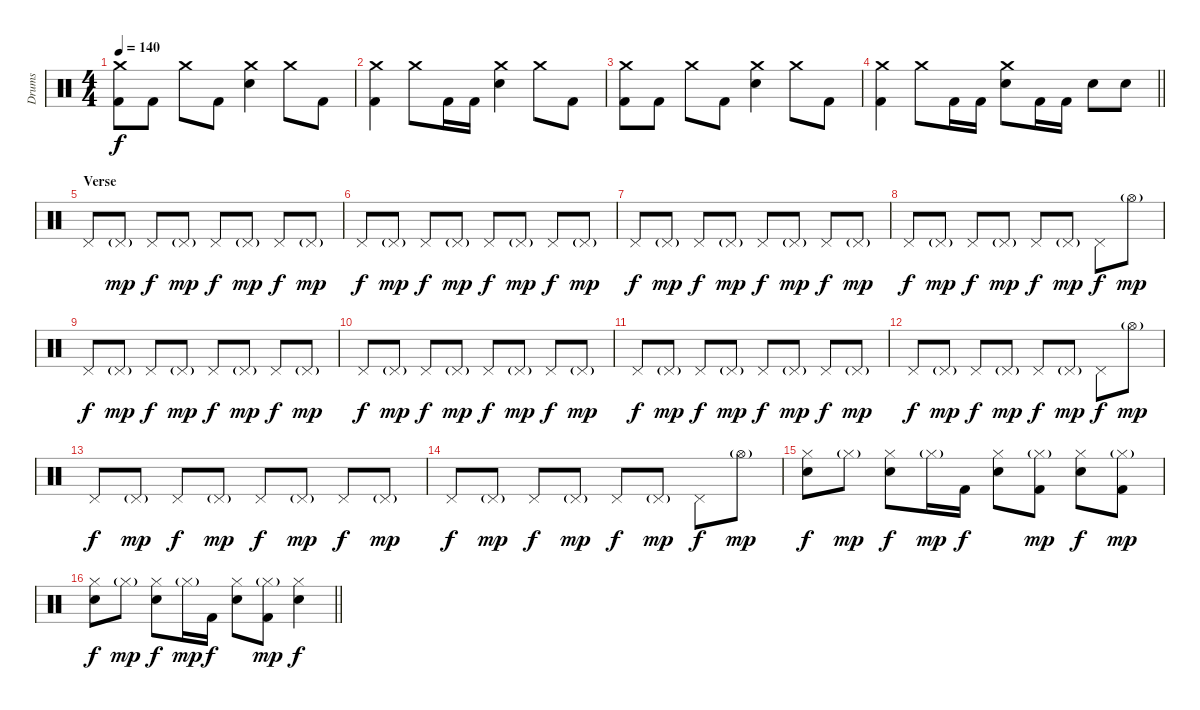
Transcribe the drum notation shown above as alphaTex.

\track ("Drums" "Drums") {instrument percussion}
\staff {score}
\articulation defaults
\ts (4 4)
\tempo 140
\clef neutral
\ks c
("Crash medium (hit)" "Kick (hit) 2").8{dy f} "Kick (hit) 2".8 "Crash medium (hit)".8 "Kick (hit) 2".8 ("Crash medium (hit)" "Electric Snare (hit)").4 "Crash medium (hit)".8 "Kick (hit) 2".8 |
("Crash medium (hit)" "Kick (hit) 2").4 "Crash medium (hit)".8 "Kick (hit) 2".16 "Kick (hit) 2".16 ("Crash medium (hit)" "Electric Snare (hit)").4 "Crash medium (hit)".8 "Kick (hit) 2".8 |
("Crash medium (hit)" "Kick (hit) 2").8 "Kick (hit) 2".8 "Crash medium (hit)".8 "Kick (hit) 2".8 ("Crash medium (hit)" "Electric Snare (hit)").4 "Crash medium (hit)".8 "Kick (hit) 2".8 |
\barLineRight lightlight
("Crash medium (hit)" "Kick (hit) 2").4 "Crash medium (hit)".8 "Kick (hit) 2".16 "Kick (hit) 2".16 ("Crash medium (hit)" "Electric Snare (hit)").8 "Kick (hit) 2".16 "Kick (hit) 2".16 "Electric Snare (hit)".8 "Electric Snare (hit)".8 |
\section ("" "Verse")
"Pedal Hi-Hat (hit)".8 "Pedal Hi-Hat (hit)"{g}.8{dy mp} "Pedal Hi-Hat (hit)".8{dy f} "Pedal Hi-Hat (hit)"{g}.8{dy mp} "Pedal Hi-Hat (hit)".8{dy f} "Pedal Hi-Hat (hit)"{g}.8{dy mp} "Pedal Hi-Hat (hit)".8{dy f} "Pedal Hi-Hat (hit)"{g}.8{dy mp} |
"Pedal Hi-Hat (hit)".8{dy f} "Pedal Hi-Hat (hit)"{g}.8{dy mp} "Pedal Hi-Hat (hit)".8{dy f} "Pedal Hi-Hat (hit)"{g}.8{dy mp} "Pedal Hi-Hat (hit)".8{dy f} "Pedal Hi-Hat (hit)"{g}.8{dy mp} "Pedal Hi-Hat (hit)".8{dy f} "Pedal Hi-Hat (hit)"{g}.8{dy mp} |
"Pedal Hi-Hat (hit)".8{dy f} "Pedal Hi-Hat (hit)"{g}.8{dy mp} "Pedal Hi-Hat (hit)".8{dy f} "Pedal Hi-Hat (hit)"{g}.8{dy mp} "Pedal Hi-Hat (hit)".8{dy f} "Pedal Hi-Hat (hit)"{g}.8{dy mp} "Pedal Hi-Hat (hit)".8{dy f} "Pedal Hi-Hat (hit)"{g}.8{dy mp} |
"Pedal Hi-Hat (hit)".8{dy f} "Pedal Hi-Hat (hit)"{g}.8{dy mp} "Pedal Hi-Hat (hit)".8{dy f} "Pedal Hi-Hat (hit)"{g}.8{dy mp} "Pedal Hi-Hat (hit)".8{dy f} "Pedal Hi-Hat (hit)"{g}.8{dy mp} "Pedal Hi-Hat (hit)".8{dy f} "Hi-Hat (open)"{g}.8{dy mp} |
"Pedal Hi-Hat (hit)".8{dy f} "Pedal Hi-Hat (hit)"{g}.8{dy mp} "Pedal Hi-Hat (hit)".8{dy f} "Pedal Hi-Hat (hit)"{g}.8{dy mp} "Pedal Hi-Hat (hit)".8{dy f} "Pedal Hi-Hat (hit)"{g}.8{dy mp} "Pedal Hi-Hat (hit)".8{dy f} "Pedal Hi-Hat (hit)"{g}.8{dy mp} |
"Pedal Hi-Hat (hit)".8{dy f} "Pedal Hi-Hat (hit)"{g}.8{dy mp} "Pedal Hi-Hat (hit)".8{dy f} "Pedal Hi-Hat (hit)"{g}.8{dy mp} "Pedal Hi-Hat (hit)".8{dy f} "Pedal Hi-Hat (hit)"{g}.8{dy mp} "Pedal Hi-Hat (hit)".8{dy f} "Pedal Hi-Hat (hit)"{g}.8{dy mp} |
"Pedal Hi-Hat (hit)".8{dy f} "Pedal Hi-Hat (hit)"{g}.8{dy mp} "Pedal Hi-Hat (hit)".8{dy f} "Pedal Hi-Hat (hit)"{g}.8{dy mp} "Pedal Hi-Hat (hit)".8{dy f} "Pedal Hi-Hat (hit)"{g}.8{dy mp} "Pedal Hi-Hat (hit)".8{dy f} "Pedal Hi-Hat (hit)"{g}.8{dy mp} |
"Pedal Hi-Hat (hit)".8{dy f} "Pedal Hi-Hat (hit)"{g}.8{dy mp} "Pedal Hi-Hat (hit)".8{dy f} "Pedal Hi-Hat (hit)"{g}.8{dy mp} "Pedal Hi-Hat (hit)".8{dy f} "Pedal Hi-Hat (hit)"{g}.8{dy mp} "Pedal Hi-Hat (hit)".8{dy f} "Hi-Hat (open)"{g}.8{dy mp} |
"Pedal Hi-Hat (hit)".8{dy f} "Pedal Hi-Hat (hit)"{g}.8{dy mp} "Pedal Hi-Hat (hit)".8{dy f} "Pedal Hi-Hat (hit)"{g}.8{dy mp} "Pedal Hi-Hat (hit)".8{dy f} "Pedal Hi-Hat (hit)"{g}.8{dy mp} "Pedal Hi-Hat (hit)".8{dy f} "Pedal Hi-Hat (hit)"{g}.8{dy mp} |
"Pedal Hi-Hat (hit)".8{dy f} "Pedal Hi-Hat (hit)"{g}.8{dy mp} "Pedal Hi-Hat (hit)".8{dy f} "Pedal Hi-Hat (hit)"{g}.8{dy mp} "Pedal Hi-Hat (hit)".8{dy f} "Pedal Hi-Hat (hit)"{g}.8{dy mp} "Pedal Hi-Hat (hit)".8{dy f} "Hi-Hat (open)"{g}.8{dy mp} |
("Hi-Hat (closed)" "Electric Snare (hit)").8{dy f} "Hi-Hat (closed)"{g}.8{dy mp} ("Hi-Hat (closed)" "Electric Snare (hit)").8{dy f} "Hi-Hat (closed)"{g}.16{dy mp} "Kick (hit) 2".16{dy f} ("Hi-Hat (closed)" "Electric Snare (hit)").8 ("Hi-Hat (closed)"{g} "Kick (hit) 2").8{dy mp} ("Hi-Hat (closed)" "Electric Snare (hit)").8{dy f} ("Hi-Hat (closed)"{g} "Kick (hit) 2").8{dy mp} |
\barLineRight lightlight
("Hi-Hat (closed)" "Electric Snare (hit)").8{dy f} "Hi-Hat (closed)"{g}.8{dy mp} ("Hi-Hat (closed)" "Electric Snare (hit)").8{dy f} "Hi-Hat (closed)"{g}.16{dy mp} "Kick (hit) 2".16{dy f} ("Hi-Hat (closed)" "Electric Snare (hit)").8 ("Hi-Hat (closed)"{g} "Kick (hit) 2").8{dy mp} ("Hi-Hat (closed)" "Electric Snare (hit)").4{dy f}
